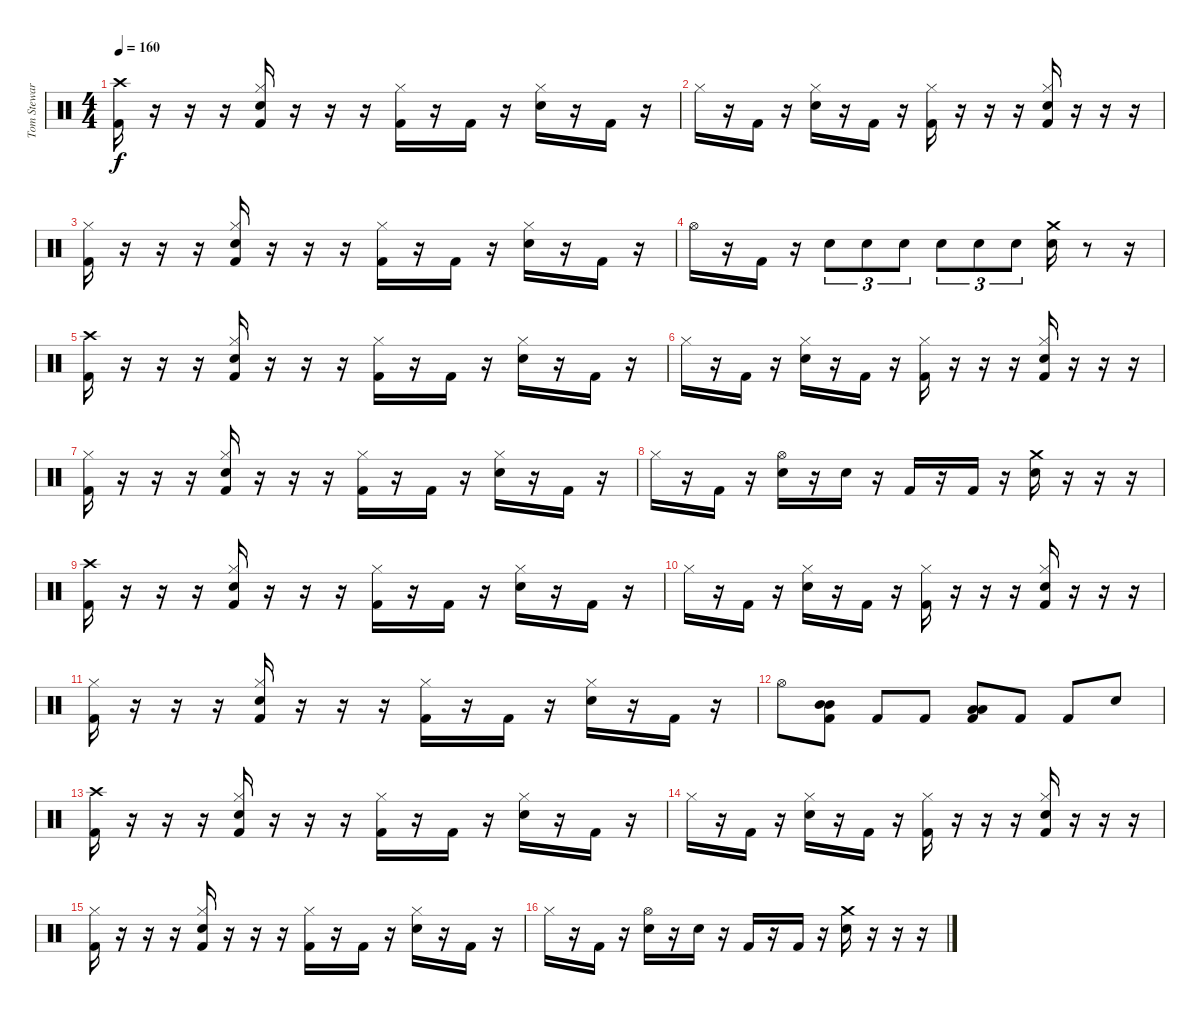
\track ("Tom Steward" "Tom Stewar") {instrument percussion}
\staff {score}
\articulation defaults
\ts (4 4)
\tempo 160
\clef neutral
\ks c
("Crash high (hit)" "Kick (hit) 2").16{dy f} r.16 r.16 r.16 ("Hi-Hat (closed)" "Snare (hit) 2" "Kick (hit) 2").16 r.16 r.16 r.16 ("Hi-Hat (closed)" "Kick (hit) 2").16 r.16 "Kick (hit) 2".16 r.16 ("Hi-Hat (closed)" "Snare (hit) 2").16 r.16 "Kick (hit) 2".16 r.16 |
"Hi-Hat (closed)".16 r.16 "Kick (hit) 2".16 r.16 ("Hi-Hat (closed)" "Snare (hit) 2").16 r.16 "Kick (hit) 2".16 r.16 ("Hi-Hat (closed)" "Kick (hit) 2").16 r.16 r.16 r.16 ("Hi-Hat (closed)" "Snare (hit) 2" "Kick (hit) 2").16 r.16 r.16 r.16 |
("Hi-Hat (closed)" "Kick (hit) 2").16 r.16 r.16 r.16 ("Hi-Hat (closed)" "Snare (hit) 2" "Kick (hit) 2").16 r.16 r.16 r.16 ("Hi-Hat (closed)" "Kick (hit) 2").16 r.16 "Kick (hit) 2".16 r.16 ("Hi-Hat (closed)" "Snare (hit) 2").16 r.16 "Kick (hit) 2".16 r.16 |
"Hi-Hat (open)".16 r.16 "Kick (hit) 2".16 r.16 "Snare (hit) 2".8{tu (3 2)} "Snare (hit) 2".8{tu (3 2)} "Snare (hit) 2".8{tu (3 2)} "Snare (hit) 2".8{tu (3 2)} "Snare (hit) 2".8{tu (3 2)} "Snare (hit) 2".8{tu (3 2)} ("Crash medium (hit)" "Snare (hit) 2").16 r.8 r.16 |
("Crash high (hit)" "Kick (hit) 2").16 r.16 r.16 r.16 ("Hi-Hat (closed)" "Snare (hit) 2" "Kick (hit) 2").16 r.16 r.16 r.16 ("Hi-Hat (closed)" "Kick (hit) 2").16 r.16 "Kick (hit) 2".16 r.16 ("Hi-Hat (closed)" "Snare (hit) 2").16 r.16 "Kick (hit) 2".16 r.16 |
"Hi-Hat (closed)".16 r.16 "Kick (hit) 2".16 r.16 ("Hi-Hat (closed)" "Snare (hit) 2").16 r.16 "Kick (hit) 2".16 r.16 ("Hi-Hat (closed)" "Kick (hit) 2").16 r.16 r.16 r.16 ("Hi-Hat (closed)" "Snare (hit) 2" "Kick (hit) 2").16 r.16 r.16 r.16 |
("Hi-Hat (closed)" "Kick (hit) 2").16 r.16 r.16 r.16 ("Hi-Hat (closed)" "Snare (hit) 2" "Kick (hit) 2").16 r.16 r.16 r.16 ("Hi-Hat (closed)" "Kick (hit) 2").16 r.16 "Kick (hit) 2".16 r.16 ("Hi-Hat (closed)" "Snare (hit) 2").16 r.16 "Kick (hit) 2".16 r.16 |
"Hi-Hat (closed)".16 r.16 "Kick (hit) 2".16 r.16 ("Hi-Hat (open)" "Snare (hit) 2").16 r.16 "Snare (hit) 2".16 r.16 "Kick (hit) 2".16 r.16 "Kick (hit) 2".16 r.16 ("Crash medium (hit)" "Snare (hit) 2").16 r.16 r.16 r.16 |
("Crash high (hit)" "Kick (hit) 2").16 r.16 r.16 r.16 ("Hi-Hat (closed)" "Snare (hit) 2" "Kick (hit) 2").16 r.16 r.16 r.16 ("Hi-Hat (closed)" "Kick (hit) 2").16 r.16 "Kick (hit) 2".16 r.16 ("Hi-Hat (closed)" "Snare (hit) 2").16 r.16 "Kick (hit) 2".16 r.16 |
"Hi-Hat (closed)".16 r.16 "Kick (hit) 2".16 r.16 ("Hi-Hat (closed)" "Snare (hit) 2").16 r.16 "Kick (hit) 2".16 r.16 ("Hi-Hat (closed)" "Kick (hit) 2").16 r.16 r.16 r.16 ("Hi-Hat (closed)" "Snare (hit) 2" "Kick (hit) 2").16 r.16 r.16 r.16 |
("Hi-Hat (closed)" "Kick (hit) 2").16 r.16 r.16 r.16 ("Hi-Hat (closed)" "Snare (hit) 2" "Kick (hit) 2").16 r.16 r.16 r.16 ("Hi-Hat (closed)" "Kick (hit) 2").16 r.16 "Kick (hit) 2".16 r.16 ("Hi-Hat (closed)" "Snare (hit) 2").16 r.16 "Kick (hit) 2".16 r.16 |
"Hi-Hat (open)".8 ("Mid Tom (hit)" "Mid Tom (hit)" "Kick (hit) 2").8 "Kick (hit) 2".8 "Kick (hit) 2".8 ("Low Tom (hit)" "Low Tom (hit)" "Kick (hit) 2").8 "Kick (hit) 2".8 "Kick (hit) 2".8 "Snare (hit) 2".8 |
("Crash high (hit)" "Kick (hit) 2").16 r.16 r.16 r.16 ("Hi-Hat (closed)" "Snare (hit) 2" "Kick (hit) 2").16 r.16 r.16 r.16 ("Hi-Hat (closed)" "Kick (hit) 2").16 r.16 "Kick (hit) 2".16 r.16 ("Hi-Hat (closed)" "Snare (hit) 2").16 r.16 "Kick (hit) 2".16 r.16 |
"Hi-Hat (closed)".16 r.16 "Kick (hit) 2".16 r.16 ("Hi-Hat (closed)" "Snare (hit) 2").16 r.16 "Kick (hit) 2".16 r.16 ("Hi-Hat (closed)" "Kick (hit) 2").16 r.16 r.16 r.16 ("Hi-Hat (closed)" "Snare (hit) 2" "Kick (hit) 2").16 r.16 r.16 r.16 |
("Hi-Hat (closed)" "Kick (hit) 2").16 r.16 r.16 r.16 ("Hi-Hat (closed)" "Snare (hit) 2" "Kick (hit) 2").16 r.16 r.16 r.16 ("Hi-Hat (closed)" "Kick (hit) 2").16 r.16 "Kick (hit) 2".16 r.16 ("Hi-Hat (closed)" "Snare (hit) 2").16 r.16 "Kick (hit) 2".16 r.16 |
"Hi-Hat (closed)".16 r.16 "Kick (hit) 2".16 r.16 ("Hi-Hat (open)" "Snare (hit) 2").16 r.16 "Snare (hit) 2".16 r.16 "Kick (hit) 2".16 r.16 "Kick (hit) 2".16 r.16 ("Crash medium (hit)" "Snare (hit) 2").16 r.16 r.16 r.16
